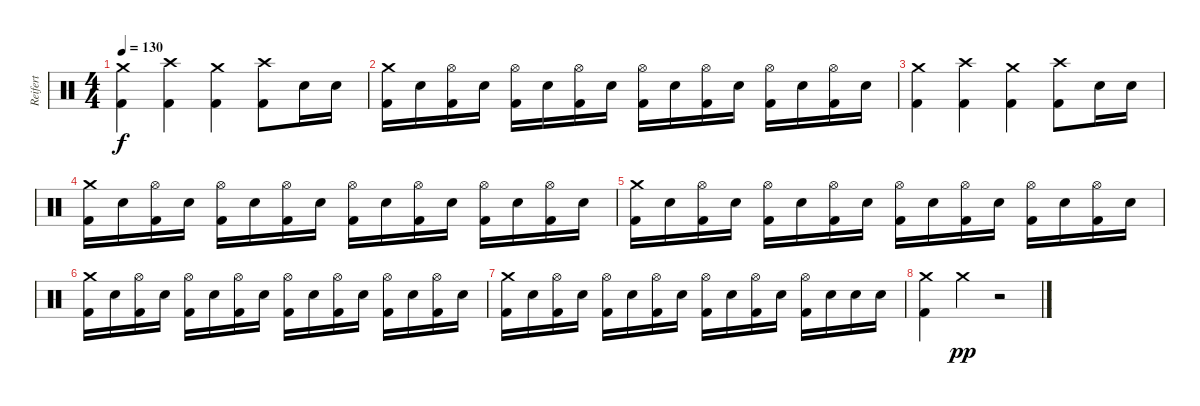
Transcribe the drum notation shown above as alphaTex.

\track ("Reifert" "Reifert") {instrument percussion}
\staff {score}
\articulation defaults
\ts (4 4)
\tempo 130
\clef neutral
\ks c
("Crash medium (hit)" "Kick (hit) 2").4{dy f} ("Crash high (hit)" "Kick (hit) 2").4 ("Crash medium (hit)" "Kick (hit) 2").4 ("Crash high (hit)" "Kick (hit) 2").8 "Electric Snare (hit)".16 "Electric Snare (hit)".16 |
("Crash medium (hit)" "Kick (hit) 2").16 "Electric Snare (hit)".16 ("Hi-Hat (open)" "Kick (hit) 2").16 "Electric Snare (hit)".16 ("Hi-Hat (open)" "Kick (hit) 2").16 "Electric Snare (hit)".16 ("Hi-Hat (open)" "Kick (hit) 2").16 "Electric Snare (hit)".16 ("Hi-Hat (open)" "Kick (hit) 2").16 "Electric Snare (hit)".16 ("Hi-Hat (open)" "Kick (hit) 2").16 "Electric Snare (hit)".16 ("Hi-Hat (open)" "Kick (hit) 2").16 "Electric Snare (hit)".16 ("Hi-Hat (open)" "Kick (hit) 2").16 "Electric Snare (hit)".16 |
("Crash medium (hit)" "Kick (hit) 2").4 ("Crash high (hit)" "Kick (hit) 2").4 ("Crash medium (hit)" "Kick (hit) 2").4 ("Crash high (hit)" "Kick (hit) 2").8 "Electric Snare (hit)".16 "Electric Snare (hit)".16 |
("Crash medium (hit)" "Kick (hit) 2").16 "Electric Snare (hit)".16 ("Hi-Hat (open)" "Kick (hit) 2").16 "Electric Snare (hit)".16 ("Hi-Hat (open)" "Kick (hit) 2").16 "Electric Snare (hit)".16 ("Hi-Hat (open)" "Kick (hit) 2").16 "Electric Snare (hit)".16 ("Hi-Hat (open)" "Kick (hit) 2").16 "Electric Snare (hit)".16 ("Hi-Hat (open)" "Kick (hit) 2").16 "Electric Snare (hit)".16 ("Hi-Hat (open)" "Kick (hit) 2").16 "Electric Snare (hit)".16 ("Hi-Hat (open)" "Kick (hit) 2").16 "Electric Snare (hit)".16 |
("Crash medium (hit)" "Kick (hit) 2").16 "Electric Snare (hit)".16 ("Hi-Hat (open)" "Kick (hit) 2").16 "Electric Snare (hit)".16 ("Hi-Hat (open)" "Kick (hit) 2").16 "Electric Snare (hit)".16 ("Hi-Hat (open)" "Kick (hit) 2").16 "Electric Snare (hit)".16 ("Hi-Hat (open)" "Kick (hit) 2").16 "Electric Snare (hit)".16 ("Hi-Hat (open)" "Kick (hit) 2").16 "Electric Snare (hit)".16 ("Hi-Hat (open)" "Kick (hit) 2").16 "Electric Snare (hit)".16 ("Hi-Hat (open)" "Kick (hit) 2").16 "Electric Snare (hit)".16 |
("Crash medium (hit)" "Kick (hit) 2").16 "Electric Snare (hit)".16 ("Hi-Hat (open)" "Kick (hit) 2").16 "Electric Snare (hit)".16 ("Hi-Hat (open)" "Kick (hit) 2").16 "Electric Snare (hit)".16 ("Hi-Hat (open)" "Kick (hit) 2").16 "Electric Snare (hit)".16 ("Hi-Hat (open)" "Kick (hit) 2").16 "Electric Snare (hit)".16 ("Hi-Hat (open)" "Kick (hit) 2").16 "Electric Snare (hit)".16 ("Hi-Hat (open)" "Kick (hit) 2").16 "Electric Snare (hit)".16 ("Hi-Hat (open)" "Kick (hit) 2").16 "Electric Snare (hit)".16 |
("Crash medium (hit)" "Kick (hit) 2").16 "Electric Snare (hit)".16 ("Hi-Hat (open)" "Kick (hit) 2").16 "Electric Snare (hit)".16 ("Hi-Hat (open)" "Kick (hit) 2").16 "Electric Snare (hit)".16 ("Hi-Hat (open)" "Kick (hit) 2").16 "Electric Snare (hit)".16 ("Hi-Hat (open)" "Kick (hit) 2").16 "Electric Snare (hit)".16 ("Hi-Hat (open)" "Kick (hit) 2").16 "Electric Snare (hit)".16 ("Hi-Hat (open)" "Kick (hit) 2").16 "Electric Snare (hit)".16 "Electric Snare (hit)".16 "Electric Snare (hit)".16 |
("Crash medium (hit)" "Kick (hit) 2").4 "Crash medium (hit)".4{dy pp} r.2
